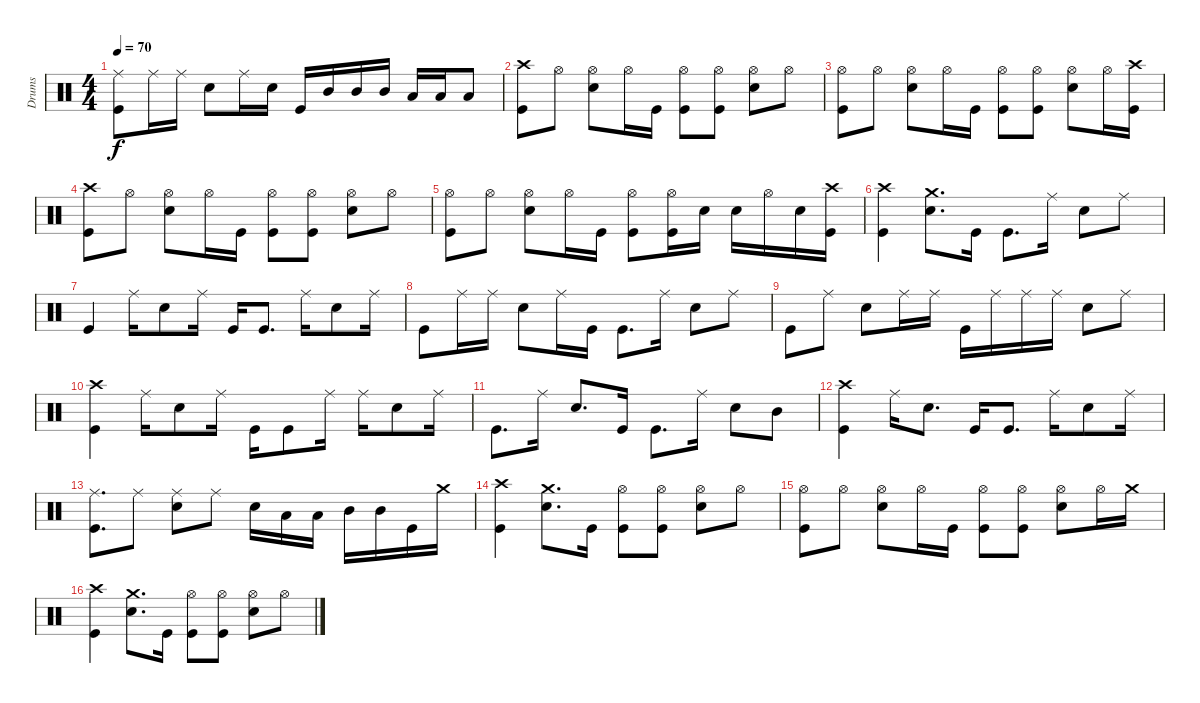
\track ("Drums" "Drums") {instrument percussion}
\staff {score}
\articulation defaults
\ts (4 4)
\tempo 70
\clef neutral
\ks c
("Ride (middle)" "Kick (hit)").8{dy f} "Ride (middle)".16 "Ride (middle)".16 "Snare (hit) 2".8 "Ride (middle)".16 "Snare (hit) 2".16 "Kick (hit)".16 "Mid Tom (hit)".16 "Mid Tom (hit)".16 "Mid Tom (hit)".16 "Low Tom (hit)".16 "Low Tom (hit)".16 "Low Tom (hit)".8 |
("Crash high (hit)" "Kick (hit)").8 "Hi-Hat (open)".8 ("Hi-Hat (open)" "Snare (hit) 2").8 "Hi-Hat (open)".16 "Kick (hit)".16 ("Hi-Hat (open)" "Kick (hit)").8 ("Hi-Hat (open)" "Kick (hit)").8 ("Hi-Hat (open)" "Snare (hit) 2").8 "Hi-Hat (open)".8 |
("Hi-Hat (open)" "Kick (hit)").8 "Hi-Hat (open)".8 ("Hi-Hat (open)" "Snare (hit) 2").8 "Hi-Hat (open)".16 "Kick (hit)".16 ("Hi-Hat (open)" "Kick (hit)").8 ("Hi-Hat (open)" "Kick (hit)").8 ("Hi-Hat (open)" "Snare (hit) 2").8 "Hi-Hat (open)".16 ("Crash high (hit)" "Kick (hit)").16 |
("Crash high (hit)" "Kick (hit)").8 "Hi-Hat (open)".8 ("Hi-Hat (open)" "Snare (hit) 2").8 "Hi-Hat (open)".16 "Kick (hit)".16 ("Hi-Hat (open)" "Kick (hit)").8 ("Hi-Hat (open)" "Kick (hit)").8 ("Hi-Hat (open)" "Snare (hit) 2").8 "Hi-Hat (open)".8 |
("Hi-Hat (open)" "Kick (hit)").8 "Hi-Hat (open)".8 ("Hi-Hat (open)" "Snare (hit) 2").8 "Hi-Hat (open)".16 "Kick (hit)".16 ("Hi-Hat (open)" "Kick (hit)").8 ("Hi-Hat (open)" "Kick (hit)").16 "Snare (hit) 2".16 "Snare (hit) 2".16 "Hi-Hat (open)".16 "Snare (hit) 2".16 ("Crash high (hit)" "Kick (hit)").16 |
("Crash high (hit)" "Kick (hit)").4 ("Crash medium (hit)" "Snare (hit) 2").8{d} "Kick (hit)".16 "Kick (hit)".8{d} "Ride (middle)".16 "Snare (hit) 2".8 "Ride (middle)".8 |
"Kick (hit)".4 "Ride (middle)".16 "Snare (hit) 2".8 "Ride (middle)".16 "Kick (hit)".16 "Kick (hit)".8{d} "Ride (middle)".16 "Snare (hit) 2".8 "Ride (middle)".16 |
"Kick (hit)".8 "Ride (middle)".16 "Ride (middle)".16 "Snare (hit) 2".8 "Ride (middle)".16 "Kick (hit)".16 "Kick (hit)".8{d} "Ride (middle)".16 "Snare (hit) 2".8 "Ride (middle)".8 |
"Kick (hit)".8 "Ride (middle)".8 "Snare (hit) 2".8 "Ride (middle)".16 "Ride (middle)".16 "Kick (hit)".16 "Ride (middle)".16 "Ride (middle)".16 "Ride (middle)".16 "Snare (hit) 2".8 "Ride (middle)".8 |
("Crash high (hit)" "Kick (hit)").4 "Ride (middle)".16 "Snare (hit) 2".8 "Ride (middle)".16 "Kick (hit)".16 "Kick (hit)".8 "Ride (middle)".16 "Ride (middle)".16 "Snare (hit) 2".8 "Ride (middle)".16 |
"Kick (hit)".8{d} "Ride (middle)".16 "Snare (hit) 2".8{d} "Kick (hit)".16 "Kick (hit)".8{d} "Ride (middle)".16 "Snare (hit) 2".8 "Mid Tom (hit)".8 |
("Crash high (hit)" "Kick (hit)").4 "Ride (middle)".16 "Snare (hit) 2".8{d} "Kick (hit)".16 "Kick (hit)".8{d} "Ride (middle)".16 "Snare (hit) 2".8 "Ride (middle)".16 |
("Ride (middle)" "Kick (hit)").8{d} "Ride (middle)".8 ("Ride (middle)" "Snare (hit) 2").8 "Ride (middle)".8 "Snare (hit) 2".16 "Low Tom (hit)".16 "Low Tom (hit)".16 "Mid Tom (hit)".16 "Mid Tom (hit)".16 "Kick (hit)".16 "Crash medium (hit)".16 |
("Crash high (hit)" "Kick (hit)").4 ("Crash medium (hit)" "Snare (hit) 2").8{d} "Kick (hit)".16 ("Hi-Hat (open)" "Kick (hit)").8 ("Hi-Hat (open)" "Kick (hit)").8 ("Hi-Hat (open)" "Snare (hit) 2").8 "Hi-Hat (open)".8 |
("Hi-Hat (open)" "Kick (hit)").8 "Hi-Hat (open)".8 ("Hi-Hat (open)" "Snare (hit) 2").8 "Hi-Hat (open)".16 "Kick (hit)".16 ("Hi-Hat (open)" "Kick (hit)").8 ("Hi-Hat (open)" "Kick (hit)").8 ("Hi-Hat (open)" "Snare (hit) 2").8 "Hi-Hat (open)".16 "Crash medium (hit)".16 |
("Crash high (hit)" "Kick (hit)").4 ("Crash medium (hit)" "Snare (hit) 2").8{d} "Kick (hit)".16 ("Hi-Hat (open)" "Kick (hit)").8 ("Hi-Hat (open)" "Kick (hit)").8 ("Hi-Hat (open)" "Snare (hit) 2").8 "Hi-Hat (open)".8
